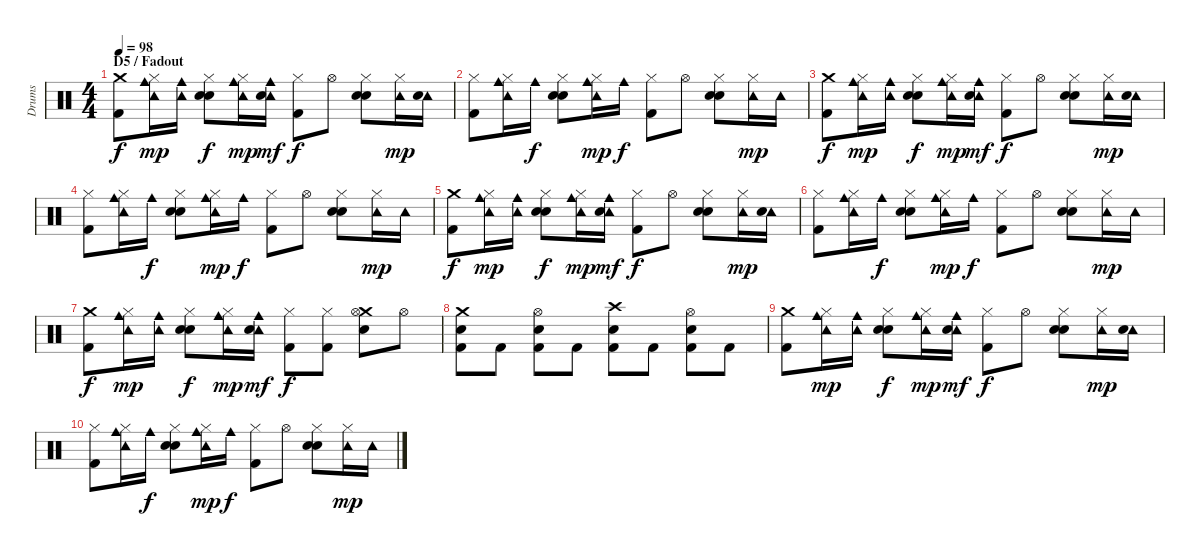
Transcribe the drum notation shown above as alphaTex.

\track ("Drums" "Drums") {instrument percussion}
\staff {score}
\articulation defaults
\ts (4 4)
\section ("" "D5 / Fadout")
\tempo 98
\clef neutral
\ks c
("Crash medium (hit)" "Kick (hit) 2").8{dy f} ("Cowbell medium (hit)" "Tambourine (hit)" "Hi-Hat (closed)").16{dy mp} ("Cowbell medium (hit)" "Tambourine (hit)").16 ("Hand Clap (hit)" "Hi-Hat (closed)" "Electric Snare (hit)").8{dy f} ("Cowbell medium (hit)" "Tambourine (hit)" "Hi-Hat (closed)").16{dy mp} ("Cowbell medium (hit)" "Tambourine (hit)" "Electric Snare (hit)").16{dy mf} ("Hi-Hat (closed)" "Kick (hit) 2").8{dy f} "Hi-Hat (open)".8 ("Hand Clap (hit)" "Hi-Hat (closed)" "Electric Snare (hit)").8 ("Tambourine (hit)" "Hi-Hat (closed)").16{dy mp} ("Tambourine (hit)" "Electric Snare (hit)").16 |
("Hi-Hat (closed)" "Kick (hit) 2").8 ("Cowbell medium (hit)" "Tambourine (hit)" "Hi-Hat (closed)").16 "Cowbell medium (hit)".16{dy f} ("Hand Clap (hit)" "Hi-Hat (closed)" "Electric Snare (hit)").8 ("Cowbell medium (hit)" "Tambourine (hit)" "Hi-Hat (closed)").16{dy mp} "Cowbell medium (hit)".16{dy f} ("Hi-Hat (closed)" "Kick (hit) 2").8 "Hi-Hat (open)".8 ("Hand Clap (hit)" "Hi-Hat (closed)" "Electric Snare (hit)").8 ("Tambourine (hit)" "Hi-Hat (closed)").16{dy mp} "Tambourine (hit)".16 |
("Crash medium (hit)" "Kick (hit) 2").8{dy f} ("Cowbell medium (hit)" "Tambourine (hit)" "Hi-Hat (closed)").16{dy mp} ("Cowbell medium (hit)" "Tambourine (hit)").16 ("Hand Clap (hit)" "Hi-Hat (closed)" "Electric Snare (hit)").8{dy f} ("Cowbell medium (hit)" "Tambourine (hit)" "Hi-Hat (closed)").16{dy mp} ("Cowbell medium (hit)" "Tambourine (hit)" "Electric Snare (hit)").16{dy mf} ("Hi-Hat (closed)" "Kick (hit) 2").8{dy f} "Hi-Hat (open)".8 ("Hand Clap (hit)" "Hi-Hat (closed)" "Electric Snare (hit)").8 ("Tambourine (hit)" "Hi-Hat (closed)").16{dy mp} ("Tambourine (hit)" "Electric Snare (hit)").16 |
("Hi-Hat (closed)" "Kick (hit) 2").8 ("Cowbell medium (hit)" "Tambourine (hit)" "Hi-Hat (closed)").16 "Cowbell medium (hit)".16{dy f} ("Hand Clap (hit)" "Hi-Hat (closed)" "Electric Snare (hit)").8 ("Cowbell medium (hit)" "Tambourine (hit)" "Hi-Hat (closed)").16{dy mp} "Cowbell medium (hit)".16{dy f} ("Hi-Hat (closed)" "Kick (hit) 2").8 "Hi-Hat (open)".8 ("Hand Clap (hit)" "Hi-Hat (closed)" "Electric Snare (hit)").8 ("Tambourine (hit)" "Hi-Hat (closed)").16{dy mp} "Tambourine (hit)".16 |
("Crash medium (hit)" "Kick (hit) 2").8{dy f} ("Cowbell medium (hit)" "Tambourine (hit)" "Hi-Hat (closed)").16{dy mp} ("Cowbell medium (hit)" "Tambourine (hit)").16 ("Hand Clap (hit)" "Hi-Hat (closed)" "Electric Snare (hit)").8{dy f} ("Cowbell medium (hit)" "Tambourine (hit)" "Hi-Hat (closed)").16{dy mp} ("Cowbell medium (hit)" "Tambourine (hit)" "Electric Snare (hit)").16{dy mf} ("Hi-Hat (closed)" "Kick (hit) 2").8{dy f} "Hi-Hat (open)".8 ("Hand Clap (hit)" "Hi-Hat (closed)" "Electric Snare (hit)").8 ("Tambourine (hit)" "Hi-Hat (closed)").16{dy mp} ("Tambourine (hit)" "Electric Snare (hit)").16 |
("Hi-Hat (closed)" "Kick (hit) 2").8 ("Cowbell medium (hit)" "Tambourine (hit)" "Hi-Hat (closed)").16 "Cowbell medium (hit)".16{dy f} ("Hand Clap (hit)" "Hi-Hat (closed)" "Electric Snare (hit)").8 ("Cowbell medium (hit)" "Tambourine (hit)" "Hi-Hat (closed)").16{dy mp} "Cowbell medium (hit)".16{dy f} ("Hi-Hat (closed)" "Kick (hit) 2").8 "Hi-Hat (open)".8 ("Hand Clap (hit)" "Hi-Hat (closed)" "Electric Snare (hit)").8 ("Tambourine (hit)" "Hi-Hat (closed)").16{dy mp} "Tambourine (hit)".16 |
("Crash medium (hit)" "Kick (hit) 2").8{dy f} ("Cowbell medium (hit)" "Tambourine (hit)" "Hi-Hat (closed)").16{dy mp} ("Cowbell medium (hit)" "Tambourine (hit)").16 ("Hand Clap (hit)" "Hi-Hat (closed)" "Electric Snare (hit)").8{dy f} ("Cowbell medium (hit)" "Tambourine (hit)" "Hi-Hat (closed)").16{dy mp} ("Cowbell medium (hit)" "Tambourine (hit)" "Electric Snare (hit)").16{dy mf} ("Hi-Hat (closed)" "Kick (hit) 2").8{dy f} ("Hi-Hat (closed)" "Kick (hit) 2").8 ("Crash medium (hit)" "Hi-Hat (open)" "Electric Snare (hit)").8 "Hi-Hat (open)".8 |
("Crash medium (hit)" "Electric Snare (hit)" "Kick (hit) 2").8 "Kick (hit) 2".8 ("Hi-Hat (open)" "Electric Snare (hit)" "Kick (hit) 2").8 "Kick (hit) 2".8 ("Crash high (hit)" "Electric Snare (hit)" "Kick (hit) 2").8 "Kick (hit) 2".8 ("Hi-Hat (open)" "Electric Snare (hit)" "Kick (hit) 2").8 "Kick (hit) 2".8 |
("Crash medium (hit)" "Kick (hit) 2").8 ("Cowbell medium (hit)" "Tambourine (hit)" "Hi-Hat (closed)").16{dy mp} ("Cowbell medium (hit)" "Tambourine (hit)").16 ("Hand Clap (hit)" "Hi-Hat (closed)" "Electric Snare (hit)").8{dy f} ("Cowbell medium (hit)" "Tambourine (hit)" "Hi-Hat (closed)").16{dy mp} ("Cowbell medium (hit)" "Tambourine (hit)" "Electric Snare (hit)").16{dy mf} ("Hi-Hat (closed)" "Kick (hit) 2").8{dy f} "Hi-Hat (open)".8 ("Hand Clap (hit)" "Hi-Hat (closed)" "Electric Snare (hit)").8 ("Tambourine (hit)" "Hi-Hat (closed)").16{dy mp} ("Tambourine (hit)" "Electric Snare (hit)").16 |
("Hi-Hat (closed)" "Kick (hit) 2").8 ("Cowbell medium (hit)" "Tambourine (hit)" "Hi-Hat (closed)").16 "Cowbell medium (hit)".16{dy f} ("Hand Clap (hit)" "Hi-Hat (closed)" "Electric Snare (hit)").8 ("Cowbell medium (hit)" "Tambourine (hit)" "Hi-Hat (closed)").16{dy mp} "Cowbell medium (hit)".16{dy f} ("Hi-Hat (closed)" "Kick (hit) 2").8 "Hi-Hat (open)".8 ("Hand Clap (hit)" "Hi-Hat (closed)" "Electric Snare (hit)").8 ("Tambourine (hit)" "Hi-Hat (closed)").16{dy mp} "Tambourine (hit)".16
